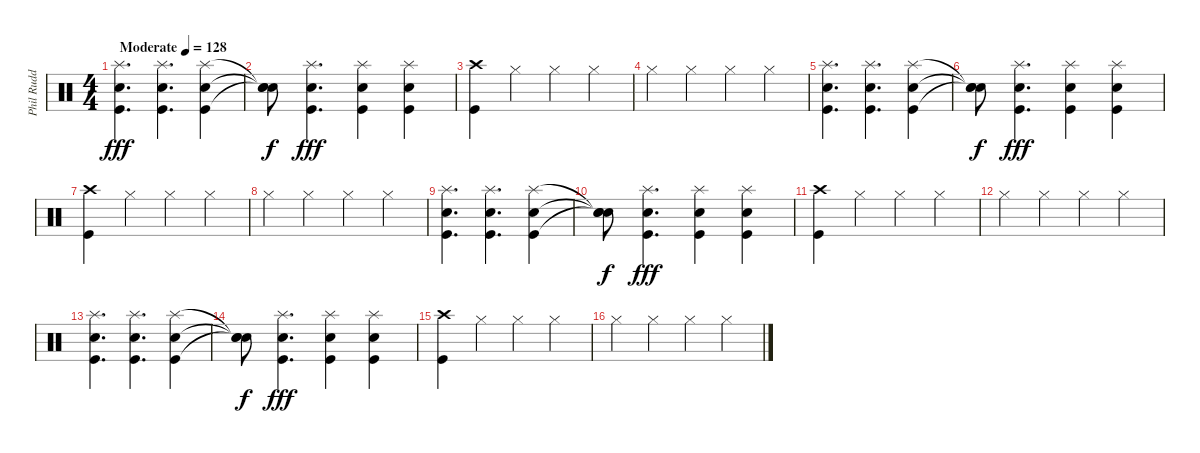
\track ("Phil Rudd" "Phil Rudd") {instrument percussion}
\staff {score}
\articulation defaults
\ts (4 4)
\tempo (128 "Moderate")
\clef neutral
\ks c
("Snare (hit) 2" "Kick (hit)" "Splash (hit)").4{d dy fff} ("Snare (hit) 2" "Kick (hit)" "Splash (hit)").4{d} ("Snare (hit) 2" "Kick (hit)" "Splash (hit)").4 |
("Snare (hit)"{t} "Snare (hit)"{t} "Snare (hit)"{t}).8{dy f} ("Snare (hit) 2" "Kick (hit)" "Splash (hit)").4{d dy fff} ("Snare (hit) 2" "Kick (hit)" "Splash (hit)").4 ("Snare (hit) 2" "Kick (hit)" "Splash (hit)").4 |
("Kick (hit)" "Crash high (hit)").4 "Hi-Hat (closed)".4 "Hi-Hat (closed)".4 "Hi-Hat (closed)".4 |
"Hi-Hat (closed)".4 "Hi-Hat (closed)".4 "Hi-Hat (closed)".4 "Hi-Hat (closed)".4 |
("Snare (hit) 2" "Kick (hit)" "Splash (hit)").4{d} ("Snare (hit) 2" "Kick (hit)" "Splash (hit)").4{d} ("Snare (hit) 2" "Kick (hit)" "Splash (hit)").4 |
("Snare (hit)"{t} "Snare (hit)"{t} "Snare (hit)"{t}).8{dy f} ("Snare (hit) 2" "Kick (hit)" "Splash (hit)").4{d dy fff} ("Snare (hit) 2" "Kick (hit)" "Splash (hit)").4 ("Snare (hit) 2" "Kick (hit)" "Splash (hit)").4 |
("Kick (hit)" "Crash high (hit)").4 "Hi-Hat (closed)".4 "Hi-Hat (closed)".4 "Hi-Hat (closed)".4 |
"Hi-Hat (closed)".4 "Hi-Hat (closed)".4 "Hi-Hat (closed)".4 "Hi-Hat (closed)".4 |
("Snare (hit) 2" "Kick (hit)" "Splash (hit)").4{d} ("Snare (hit) 2" "Kick (hit)" "Splash (hit)").4{d} ("Snare (hit) 2" "Kick (hit)" "Splash (hit)").4 |
("Snare (hit)"{t} "Snare (hit)"{t} "Snare (hit)"{t}).8{dy f} ("Snare (hit) 2" "Kick (hit)" "Splash (hit)").4{d dy fff} ("Snare (hit) 2" "Kick (hit)" "Splash (hit)").4 ("Snare (hit) 2" "Kick (hit)" "Splash (hit)").4 |
("Kick (hit)" "Crash high (hit)").4 "Hi-Hat (closed)".4 "Hi-Hat (closed)".4 "Hi-Hat (closed)".4 |
"Hi-Hat (closed)".4 "Hi-Hat (closed)".4 "Hi-Hat (closed)".4 "Hi-Hat (closed)".4 |
("Snare (hit) 2" "Kick (hit)" "Splash (hit)").4{d} ("Snare (hit) 2" "Kick (hit)" "Splash (hit)").4{d} ("Snare (hit) 2" "Kick (hit)" "Splash (hit)").4 |
("Snare (hit)"{t} "Snare (hit)"{t} "Snare (hit)"{t}).8{dy f} ("Snare (hit) 2" "Kick (hit)" "Splash (hit)").4{d dy fff} ("Snare (hit) 2" "Kick (hit)" "Splash (hit)").4 ("Snare (hit) 2" "Kick (hit)" "Splash (hit)").4 |
("Kick (hit)" "Crash high (hit)").4 "Hi-Hat (closed)".4 "Hi-Hat (closed)".4 "Hi-Hat (closed)".4 |
"Hi-Hat (closed)".4 "Hi-Hat (closed)".4 "Hi-Hat (closed)".4 "Hi-Hat (closed)".4
